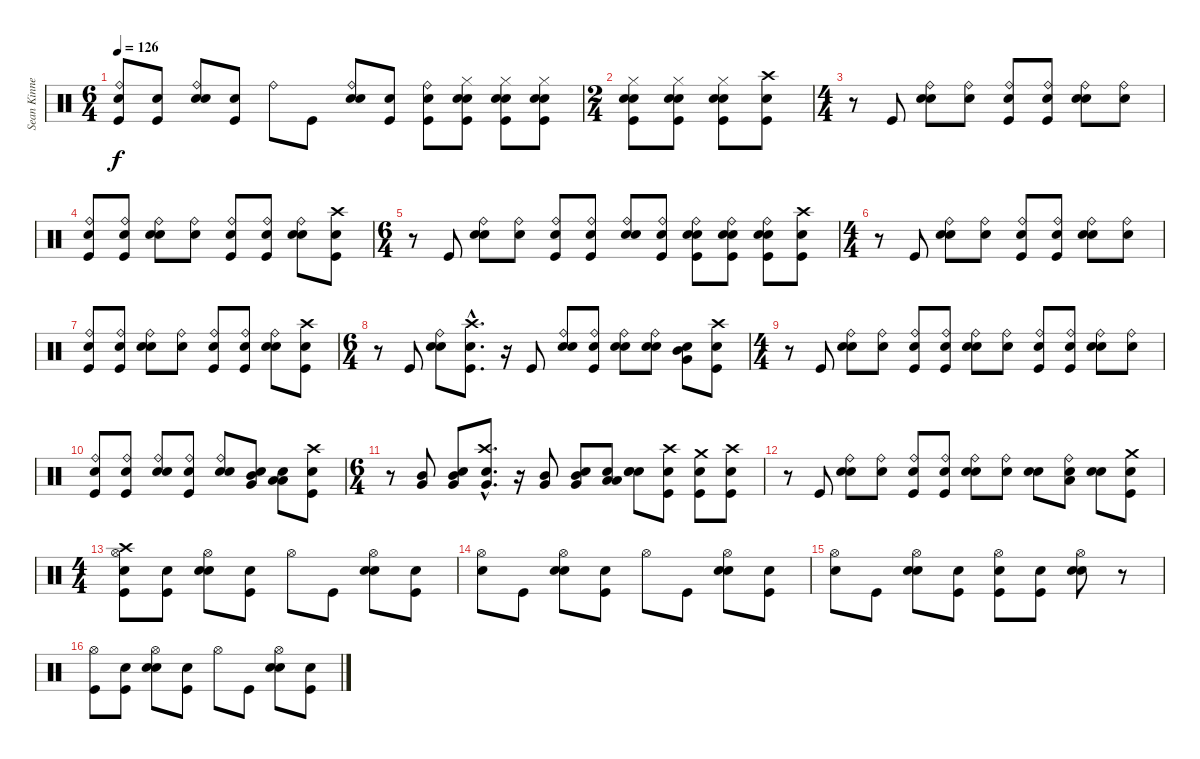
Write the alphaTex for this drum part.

\track ("Sean Kinney (Drums)" "Sean Kinne") {instrument percussion}
\staff {score}
\articulation defaults
\ts (6 4)
\tempo 126
\clef neutral
\ks c
("Snare (hit)" "Ride (bell)" "Kick (hit)").8{dy f} ("Snare (hit)" "Kick (hit)").8 ("Snare (hit)" "Ride (bell)" "Electric Snare (hit)").8 ("Snare (hit)" "Kick (hit)").8 "Ride (bell)".8 "Kick (hit)".8 ("Snare (hit)" "Ride (bell)" "Electric Snare (hit)").8 ("Snare (hit)" "Kick (hit)").8 ("Snare (hit)" "Kick (hit)" "Ride (bell)").8 ("Snare (hit)" "Electric Snare (hit)" "Kick (hit)" "Hi-Hat (closed)").8 ("Snare (hit)" "Kick (hit)" "Hi-Hat (closed)" "Electric Snare (hit)").8 ("Snare (hit)" "Kick (hit)" "Electric Snare (hit)" "Hi-Hat (closed)").8 |
\ts (2 4)
("Snare (hit)" "Kick (hit)" "Electric Snare (hit)" "Hi-Hat (closed)").8 ("Snare (hit)" "Hi-Hat (closed)" "Electric Snare (hit)" "Kick (hit)").8 ("Snare (hit)" "Hi-Hat (closed)" "Kick (hit)" "Electric Snare (hit)").8 ("Snare (hit)" "Crash high (hit)" "Kick (hit)").8 |
\ts (4 4)
r.8 "Kick (hit)".8 ("Snare (hit)" "Electric Snare (hit)" "Ride (bell)").8 ("Snare (hit)" "Ride (bell)").8 ("Snare (hit)" "Ride (bell)" "Kick (hit)").8 ("Snare (hit)" "Ride (bell)" "Kick (hit)").8 ("Snare (hit)" "Electric Snare (hit)" "Ride (bell)").8 ("Snare (hit)" "Ride (bell)").8 |
("Snare (hit)" "Ride (bell)" "Kick (hit)").8 ("Snare (hit)" "Kick (hit)" "Ride (bell)").8 ("Snare (hit)" "Electric Snare (hit)" "Ride (bell)").8 ("Snare (hit)" "Ride (bell)").8 ("Snare (hit)" "Ride (bell)" "Kick (hit)").8 ("Snare (hit)" "Ride (bell)" "Kick (hit)").8 ("Snare (hit)" "Ride (bell)" "Electric Snare (hit)").8 ("Snare (hit)" "Kick (hit)" "Crash high (hit)").8 |
\ts (6 4)
r.8 "Kick (hit)".8 ("Snare (hit)" "Ride (bell)" "Electric Snare (hit)").8 ("Snare (hit)" "Ride (bell)").8 ("Snare (hit)" "Ride (bell)" "Kick (hit)").8 ("Snare (hit)" "Ride (bell)" "Kick (hit)").8 ("Snare (hit)" "Ride (bell)" "Electric Snare (hit)").8 ("Snare (hit)" "Ride (bell)" "Kick (hit)").8 ("Snare (hit)" "Ride (bell)" "Kick (hit)" "Electric Snare (hit)").8 ("Snare (hit)" "Ride (bell)" "Electric Snare (hit)" "Kick (hit)").8 ("Snare (hit)" "Kick (hit)" "Ride (bell)" "Electric Snare (hit)").8 ("Snare (hit)" "Crash high (hit)" "Kick (hit)").8 |
\ts (4 4)
r.8 "Kick (hit)".8 ("Snare (hit)" "Electric Snare (hit)" "Ride (bell)").8 ("Snare (hit)" "Ride (bell)").8 ("Snare (hit)" "Ride (bell)" "Kick (hit)").8 ("Snare (hit)" "Kick (hit)" "Ride (bell)").8 ("Snare (hit)" "Electric Snare (hit)" "Ride (bell)").8 ("Snare (hit)" "Ride (bell)").8 |
("Snare (hit)" "Ride (bell)" "Kick (hit)").8 ("Snare (hit)" "Ride (bell)" "Kick (hit)").8 ("Snare (hit)" "Ride (bell)" "Electric Snare (hit)").8 ("Snare (hit)" "Ride (bell)").8 ("Snare (hit)" "Ride (bell)" "Kick (hit)").8 ("Snare (hit)" "Kick (hit)" "Ride (bell)").8 ("Snare (hit)" "Electric Snare (hit)" "Ride (bell)").8 ("Snare (hit)" "Crash high (hit)" "Kick (hit)").8 |
\ts (6 4)
r.8 "Kick (hit)".8 ("Snare (hit)" "Ride (bell)" "Electric Snare (hit)").8 ("Snare (hit)"{hac} "Crash high (hit)"{hac} "Kick (hit)"{hac}).8{d} r.16 "Kick (hit)".8 ("Snare (hit)" "Electric Snare (hit)" "Ride (bell)").8 ("Snare (hit)" "Kick (hit)" "Ride (bell)").8 ("Snare (hit)" "Ride (bell)" "Electric Snare (hit)").8 ("Snare (hit)" "Ride (bell)" "Electric Snare (hit)").8 ("Snare (hit)" "Mid Tom (hit)" "Very Low Tom (hit)").8 ("Snare (hit)" "Crash high (hit)" "Kick (hit)").8 |
\ts (4 4)
r.8 "Kick (hit)".8 ("Snare (hit)" "Ride (bell)" "Electric Snare (hit)").8 ("Snare (hit)" "Ride (bell)").8 ("Snare (hit)" "Ride (bell)" "Kick (hit)").8 ("Snare (hit)" "Ride (bell)" "Kick (hit)").8 ("Snare (hit)" "Ride (bell)" "Electric Snare (hit)").8 ("Snare (hit)" "Ride (bell)").8 ("Snare (hit)" "Kick (hit)" "Ride (bell)").8 ("Snare (hit)" "Ride (bell)" "Kick (hit)").8 ("Snare (hit)" "Ride (bell)" "Electric Snare (hit)").8 ("Snare (hit)" "Ride (bell)").8 |
("Snare (hit)" "Ride (bell)" "Kick (hit)").8 ("Snare (hit)" "Ride (bell)" "Kick (hit)").8 ("Snare (hit)" "Ride (bell)" "Electric Snare (hit)").8 ("Snare (hit)" "Kick (hit)" "Ride (bell)").8 ("Snare (hit)" "Ride (bell)" "Electric Snare (hit)").8 ("Snare (hit)" "Very Low Tom (hit)" "Mid Tom (hit)").8 ("Snare (hit)" "Low Tom (hit)" "Low Floor Tom (hit)").8 ("Snare (hit)" "Kick (hit)" "Crash high (hit)").8 |
\ts (6 4)
r.8 ("Mid Tom (hit)" "Very Low Tom (hit)").8 ("Snare (hit)" "Very Low Tom (hit)" "Mid Tom (hit)").8 ("Snare (hit)"{hac} "Very Low Tom (hit)"{hac} "Crash high (hit)"{hac}).8{d} r.16 ("Very Low Tom (hit)" "Mid Tom (hit)").8 ("Snare (hit)" "Very Low Tom (hit)" "Mid Tom (hit)").8 ("Snare (hit)" "Low Floor Tom (hit)" "Low Tom (hit)").8 ("Snare (hit)" "Electric Snare (hit)" "Snare (hit) 2").8 ("Snare (hit)" "Kick (hit)" "Crash high (hit)").8 ("Snare (hit)" "Crash medium (hit)" "Kick (hit)").8 ("Snare (hit)" "Kick (hit)" "Crash high (hit)").8 |
r.8 "Kick (hit)".8 ("Snare (hit)" "Ride (bell)" "Electric Snare (hit)").8 ("Snare (hit)" "Ride (bell)").8 ("Snare (hit)" "Kick (hit)" "Ride (bell)").8 ("Snare (hit)" "Ride (bell)" "Kick (hit)").8 ("Snare (hit)" "Ride (bell)" "Electric Snare (hit)").8 ("Snare (hit)" "Ride (bell)").8 ("Snare (hit)" "Electric Snare (hit)").8 ("Snare (hit)" "Ride (bell)" "Low Tom (hit)").8 ("Snare (hit)" "Electric Snare (hit)").8 ("Snare (hit)" "Crash medium (hit)" "Kick (hit)").8 |
\ts (4 4)
("Snare (hit)" "Kick (hit)" "Hi-Hat (open)" "Crash high (hit)").8 ("Snare (hit)" "Kick (hit)").8 ("Snare (hit)" "Electric Snare (hit)" "Hi-Hat (open)").8 ("Snare (hit)" "Kick (hit)").8 "Hi-Hat (open)".8 "Kick (hit)".8 ("Snare (hit)" "Hi-Hat (open)" "Electric Snare (hit)").8 ("Snare (hit)" "Kick (hit)").8 |
("Snare (hit)" "Hi-Hat (open)").8 "Kick (hit)".8 ("Snare (hit)" "Hi-Hat (open)" "Electric Snare (hit)").8 ("Snare (hit)" "Kick (hit)").8 "Hi-Hat (open)".8 "Kick (hit)".8 ("Snare (hit)" "Electric Snare (hit)" "Hi-Hat (open)").8 ("Snare (hit)" "Kick (hit)").8 |
("Snare (hit)" "Hi-Hat (open)").8 "Kick (hit)".8 ("Snare (hit)" "Electric Snare (hit)" "Hi-Hat (open)").8 ("Snare (hit)" "Kick (hit)").8 ("Snare (hit)" "Kick (hit)" "Hi-Hat (open)").8 ("Snare (hit)" "Kick (hit)").8 ("Snare (hit)" "Electric Snare (hit)" "Hi-Hat (open)").8 r.8 |
("Kick (hit)" "Hi-Hat (open)").8 ("Snare (hit)" "Kick (hit)").8 ("Snare (hit)" "Electric Snare (hit)" "Hi-Hat (open)").8 ("Snare (hit)" "Kick (hit)").8 "Hi-Hat (open)".8 "Kick (hit)".8 ("Snare (hit)" "Hi-Hat (open)" "Electric Snare (hit)").8 ("Snare (hit)" "Kick (hit)").8
